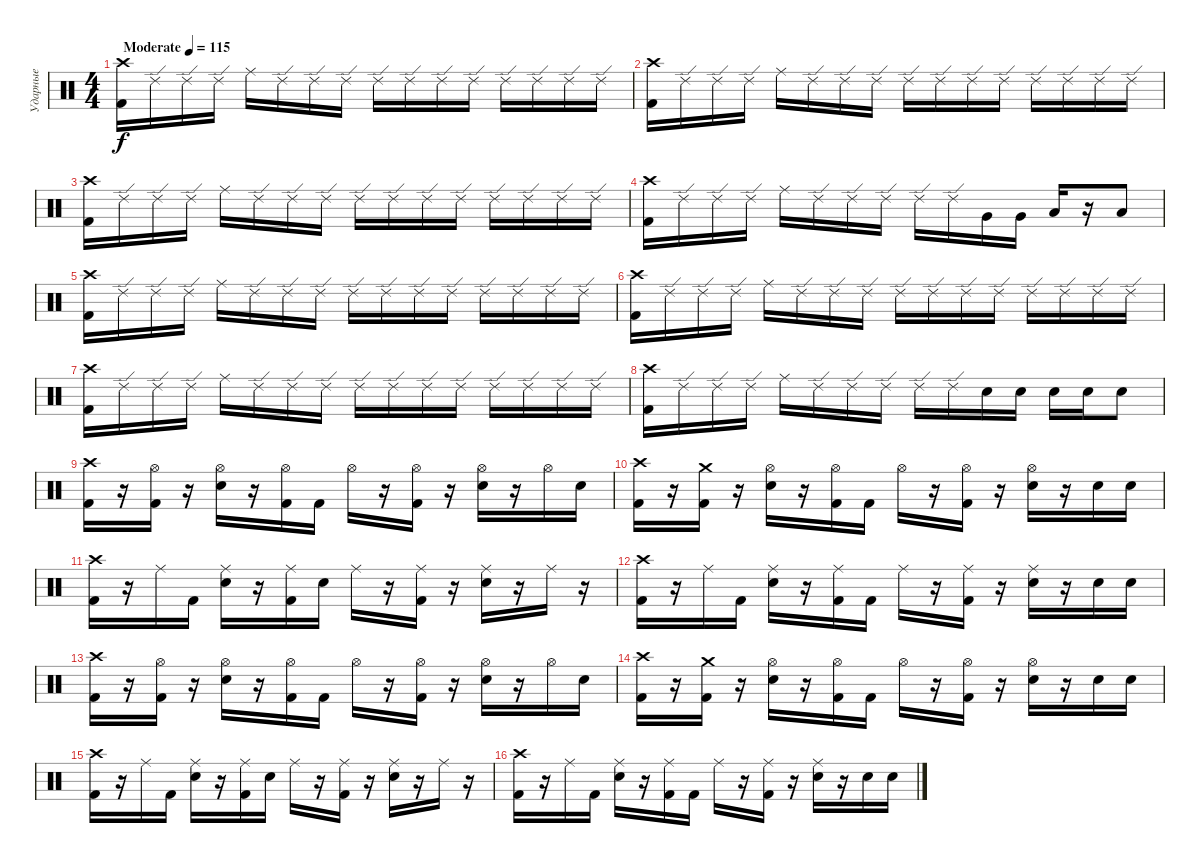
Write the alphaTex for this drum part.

\track ("Ударные" "Ударные") {instrument percussion}
\staff {score}
\articulation defaults
\ts (4 4)
\tempo (115 "Moderate")
\clef neutral
\ks c
("Crash high (hit)" "Kick (hit) 2").16{dy f} "Ride (edge) 2".16 "Ride (edge) 2".16 "Ride (edge) 2".16 "Ride (middle)".16 "Ride (edge) 2".16 "Ride (edge) 2".16 "Ride (edge) 2".16 "Ride (edge) 2".16 "Ride (edge) 2".16 "Ride (edge) 2".16 "Ride (edge) 2".16 "Ride (edge) 2".16 "Ride (edge) 2".16 "Ride (edge) 2".16 "Ride (edge) 2".16 |
("Crash high (hit)" "Kick (hit) 2").16 "Ride (edge) 2".16 "Ride (edge) 2".16 "Ride (edge) 2".16 "Ride (middle)".16 "Ride (edge) 2".16 "Ride (edge) 2".16 "Ride (edge) 2".16 "Ride (edge) 2".16 "Ride (edge) 2".16 "Ride (edge) 2".16 "Ride (edge) 2".16 "Ride (edge) 2".16 "Ride (edge) 2".16 "Ride (edge) 2".16 "Ride (edge) 2".16 |
("Crash high (hit)" "Kick (hit) 2").16 "Ride (edge) 2".16 "Ride (edge) 2".16 "Ride (edge) 2".16 "Ride (middle)".16 "Ride (edge) 2".16 "Ride (edge) 2".16 "Ride (edge) 2".16 "Ride (edge) 2".16 "Ride (edge) 2".16 "Ride (edge) 2".16 "Ride (edge) 2".16 "Ride (edge) 2".16 "Ride (edge) 2".16 "Ride (edge) 2".16 "Ride (edge) 2".16 |
("Crash high (hit)" "Kick (hit) 2").16 "Ride (edge) 2".16 "Ride (edge) 2".16 "Ride (edge) 2".16 "Ride (middle)".16 "Ride (edge) 2".16 "Ride (edge) 2".16 "Ride (edge) 2".16 "Ride (edge) 2".16 "Ride (edge) 2".16 "Very Low Tom (hit)".16 "Very Low Tom (hit)".16 "Low Floor Tom (hit)".16 r.16 "Low Floor Tom (hit)".8 |
("Crash high (hit)" "Kick (hit) 2").16 "Ride (edge) 2".16 "Ride (edge) 2".16 "Ride (edge) 2".16 "Ride (middle)".16 "Ride (edge) 2".16 "Ride (edge) 2".16 "Ride (edge) 2".16 "Ride (edge) 2".16 "Ride (edge) 2".16 "Ride (edge) 2".16 "Ride (edge) 2".16 "Ride (edge) 2".16 "Ride (edge) 2".16 "Ride (edge) 2".16 "Ride (edge) 2".16 |
("Crash high (hit)" "Kick (hit) 2").16 "Ride (edge) 2".16 "Ride (edge) 2".16 "Ride (edge) 2".16 "Ride (middle)".16 "Ride (edge) 2".16 "Ride (edge) 2".16 "Ride (edge) 2".16 "Ride (edge) 2".16 "Ride (edge) 2".16 "Ride (edge) 2".16 "Ride (edge) 2".16 "Ride (edge) 2".16 "Ride (edge) 2".16 "Ride (edge) 2".16 "Ride (edge) 2".16 |
("Crash high (hit)" "Kick (hit) 2").16 "Ride (edge) 2".16 "Ride (edge) 2".16 "Ride (edge) 2".16 "Ride (middle)".16 "Ride (edge) 2".16 "Ride (edge) 2".16 "Ride (edge) 2".16 "Ride (edge) 2".16 "Ride (edge) 2".16 "Ride (edge) 2".16 "Ride (edge) 2".16 "Ride (edge) 2".16 "Ride (edge) 2".16 "Ride (edge) 2".16 "Ride (edge) 2".16 |
("Crash high (hit)" "Kick (hit) 2").16 "Ride (edge) 2".16 "Ride (edge) 2".16 "Ride (edge) 2".16 "Ride (middle)".16 "Ride (edge) 2".16 "Ride (edge) 2".16 "Ride (edge) 2".16 "Ride (edge) 2".16 "Ride (edge) 2".16 "Electric Snare (hit)".16 "Electric Snare (hit)".16 "Electric Snare (hit)".16 "Electric Snare (hit)".16 "Electric Snare (hit)".8 |
("Crash high (hit)" "Kick (hit) 2").16 r.16 ("Hi-Hat (open)" "Kick (hit) 2").16 r.16 ("Hi-Hat (open)" "Electric Snare (hit)").16 r.16 ("Hi-Hat (open)" "Kick (hit) 2").16 "Kick (hit) 2".16 "Hi-Hat (open)".16 r.16 ("Hi-Hat (open)" "Kick (hit) 2").16 r.16 ("Hi-Hat (open)" "Electric Snare (hit)").16 r.16 "Hi-Hat (open)".16 "Electric Snare (hit)".16 |
("Crash high (hit)" "Kick (hit) 2").16 r.16 ("Crash medium (hit)" "Kick (hit) 2").16 r.16 ("Hi-Hat (open)" "Electric Snare (hit)").16 r.16 ("Hi-Hat (open)" "Kick (hit) 2").16 "Kick (hit) 2".16 "Hi-Hat (open)".16 r.16 ("Hi-Hat (open)" "Kick (hit) 2").16 r.16 ("Hi-Hat (open)" "Electric Snare (hit)").16 r.16 "Electric Snare (hit)".16 "Electric Snare (hit)".16 |
("Crash high (hit)" "Kick (hit) 2").16 r.16 "Ride (middle)".16 "Kick (hit) 2".16 ("Ride (middle)" "Electric Snare (hit)").16 r.16 ("Ride (middle)" "Kick (hit) 2").16 "Electric Snare (hit)".16 "Ride (middle)".16 r.16 ("Ride (middle)" "Kick (hit) 2").16 r.16 ("Ride (middle)" "Electric Snare (hit)").16 r.16 "Ride (middle)".16 r.16 |
("Crash high (hit)" "Kick (hit) 2").16 r.16 "Ride (middle)".16 "Kick (hit) 2".16 ("Ride (middle)" "Electric Snare (hit)").16 r.16 ("Ride (middle)" "Kick (hit) 2").16 "Kick (hit) 2".16 "Ride (middle)".16 r.16 ("Ride (middle)" "Kick (hit) 2").16 r.16 ("Ride (middle)" "Electric Snare (hit)").16 r.16 "Electric Snare (hit)".16 "Electric Snare (hit)".16 |
("Crash high (hit)" "Kick (hit) 2").16 r.16 ("Hi-Hat (open)" "Kick (hit) 2").16 r.16 ("Hi-Hat (open)" "Electric Snare (hit)").16 r.16 ("Hi-Hat (open)" "Kick (hit) 2").16 "Kick (hit) 2".16 "Hi-Hat (open)".16 r.16 ("Hi-Hat (open)" "Kick (hit) 2").16 r.16 ("Hi-Hat (open)" "Electric Snare (hit)").16 r.16 "Hi-Hat (open)".16 "Electric Snare (hit)".16 |
("Crash high (hit)" "Kick (hit) 2").16 r.16 ("Crash medium (hit)" "Kick (hit) 2").16 r.16 ("Hi-Hat (open)" "Electric Snare (hit)").16 r.16 ("Hi-Hat (open)" "Kick (hit) 2").16 "Kick (hit) 2".16 "Hi-Hat (open)".16 r.16 ("Hi-Hat (open)" "Kick (hit) 2").16 r.16 ("Hi-Hat (open)" "Electric Snare (hit)").16 r.16 "Electric Snare (hit)".16 "Electric Snare (hit)".16 |
("Crash high (hit)" "Kick (hit) 2").16 r.16 "Ride (middle)".16 "Kick (hit) 2".16 ("Ride (middle)" "Electric Snare (hit)").16 r.16 ("Ride (middle)" "Kick (hit) 2").16 "Electric Snare (hit)".16 "Ride (middle)".16 r.16 ("Ride (middle)" "Kick (hit) 2").16 r.16 ("Ride (middle)" "Electric Snare (hit)").16 r.16 "Ride (middle)".16 r.16 |
("Crash high (hit)" "Kick (hit) 2").16 r.16 "Ride (middle)".16 "Kick (hit) 2".16 ("Ride (middle)" "Electric Snare (hit)").16 r.16 ("Ride (middle)" "Kick (hit) 2").16 "Kick (hit) 2".16 "Ride (middle)".16 r.16 ("Ride (middle)" "Kick (hit) 2").16 r.16 ("Ride (middle)" "Electric Snare (hit)").16 r.16 "Electric Snare (hit)".16 "Electric Snare (hit)".16
